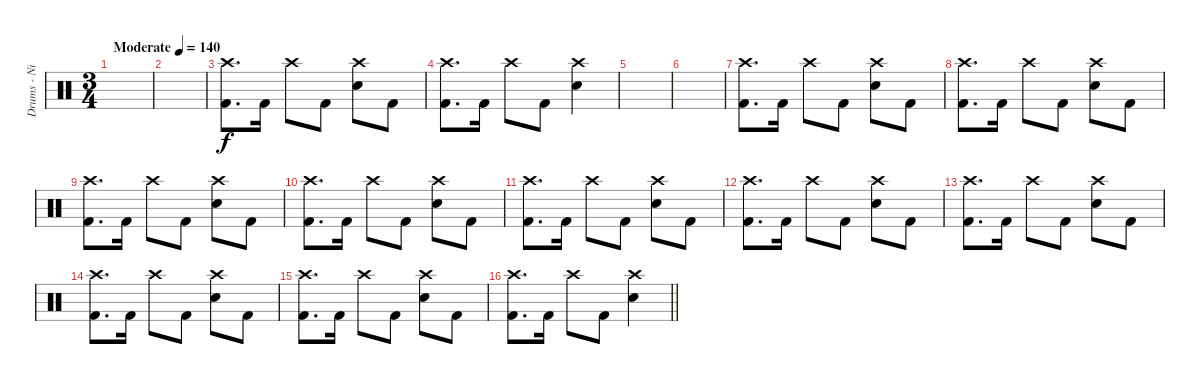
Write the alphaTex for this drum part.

\track ("Drums - Nick" "Drums - Ni") {instrument percussion}
\staff {score}
\articulation defaults
\ts (3 4)
\tempo (140 "Moderate")
\clef neutral
\ks c
|
|
("Crash high (hit)" "Kick (hit) 2").8{d} "Kick (hit) 2".16 "Crash high (hit)".8 "Kick (hit) 2".8 ("Crash high (hit)" "Snare (hit) 2").8 "Kick (hit) 2".8 |
("Crash high (hit)" "Kick (hit) 2").8{d} "Kick (hit) 2".16 "Crash high (hit)".8 "Kick (hit) 2".8 ("Crash high (hit)" "Snare (hit) 2").4 |
|
|
("Crash high (hit)" "Kick (hit) 2").8{d} "Kick (hit) 2".16 "Crash high (hit)".8 "Kick (hit) 2".8 ("Crash high (hit)" "Snare (hit) 2").8 "Kick (hit) 2".8 |
("Crash high (hit)" "Kick (hit) 2").8{d} "Kick (hit) 2".16 "Crash high (hit)".8 "Kick (hit) 2".8 ("Crash high (hit)" "Snare (hit) 2").8 "Kick (hit) 2".8 |
("Crash high (hit)" "Kick (hit) 2").8{d} "Kick (hit) 2".16 "Crash high (hit)".8 "Kick (hit) 2".8 ("Crash high (hit)" "Snare (hit) 2").8 "Kick (hit) 2".8 |
("Crash high (hit)" "Kick (hit) 2").8{d} "Kick (hit) 2".16 "Crash high (hit)".8 "Kick (hit) 2".8 ("Crash high (hit)" "Snare (hit) 2").8 "Kick (hit) 2".8 |
("Crash high (hit)" "Kick (hit) 2").8{d} "Kick (hit) 2".16 "Crash high (hit)".8 "Kick (hit) 2".8 ("Crash high (hit)" "Snare (hit) 2").8 "Kick (hit) 2".8 |
("Crash high (hit)" "Kick (hit) 2").8{d} "Kick (hit) 2".16 "Crash high (hit)".8 "Kick (hit) 2".8 ("Crash high (hit)" "Snare (hit) 2").8 "Kick (hit) 2".8 |
("Crash high (hit)" "Kick (hit) 2").8{d} "Kick (hit) 2".16 "Crash high (hit)".8 "Kick (hit) 2".8 ("Crash high (hit)" "Snare (hit) 2").8 "Kick (hit) 2".8 |
("Crash high (hit)" "Kick (hit) 2").8{d} "Kick (hit) 2".16 "Crash high (hit)".8 "Kick (hit) 2".8 ("Crash high (hit)" "Snare (hit) 2").8 "Kick (hit) 2".8 |
("Crash high (hit)" "Kick (hit) 2").8{d} "Kick (hit) 2".16 "Crash high (hit)".8 "Kick (hit) 2".8 ("Crash high (hit)" "Snare (hit) 2").8 "Kick (hit) 2".8 |
\barLineRight lightlight
("Crash high (hit)" "Kick (hit) 2").8{d} "Kick (hit) 2".16 "Crash high (hit)".8 "Kick (hit) 2".8 ("Crash high (hit)" "Snare (hit) 2").4
